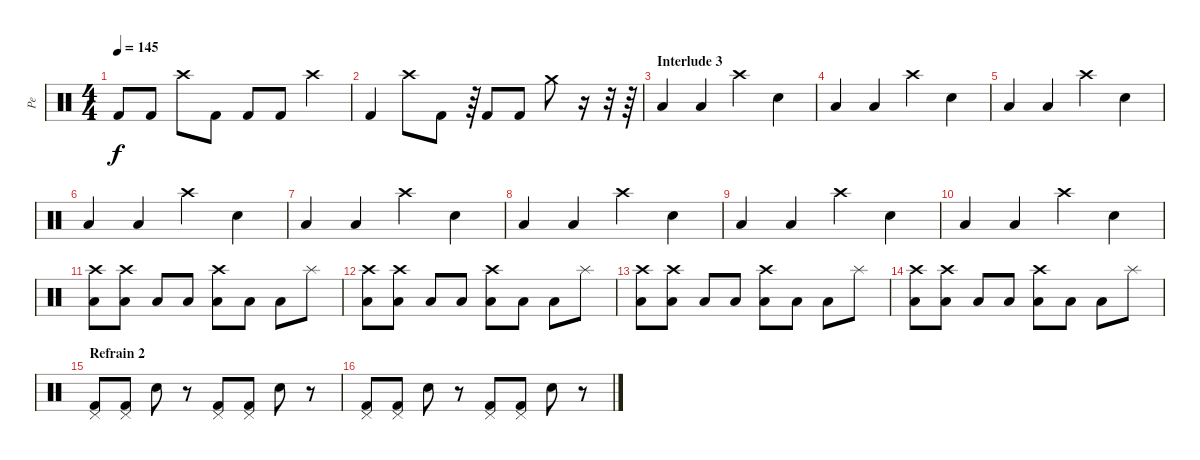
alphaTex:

\track ("Pe" "Pe") {instrument percussion}
\staff {score}
\articulation defaults
\ts (4 4)
\tempo 145
\clef neutral
\ks c "Kick (hit) 2".8{dy f} "Kick (hit) 2".8 "Crash high (hit)".8 "Kick (hit) 2".8 "Kick (hit) 2".8 "Kick (hit) 2".8 "Crash high (hit)".4
|
"Kick (hit) 2".4 "Crash high (hit)".8 "Kick (hit) 2".8 r.64 "Kick (hit) 2".8 "Kick (hit) 2".8 "Crash medium (hit)".8 r.16 r.32 r.64 |
\section ("" "Interlude 3")
"Low Tom (hit)".4 "Low Floor Tom (hit)".4 "Crash high (hit)".4 "Electric Snare (hit)".4 |
"Low Tom (hit)".4 "Low Floor Tom (hit)".4 "Crash high (hit)".4 "Electric Snare (hit)".4 |
"Low Tom (hit)".4 "Low Floor Tom (hit)".4 "Crash high (hit)".4 "Electric Snare (hit)".4 |
"Low Tom (hit)".4 "Low Floor Tom (hit)".4 "Crash high (hit)".4 "Electric Snare (hit)".4 |
"Low Tom (hit)".4 "Low Floor Tom (hit)".4 "Crash high (hit)".4 "Electric Snare (hit)".4 |
"Low Tom (hit)".4 "Low Floor Tom (hit)".4 "Crash high (hit)".4 "Electric Snare (hit)".4 |
"Low Tom (hit)".4 "Low Floor Tom (hit)".4 "Crash high (hit)".4 "Electric Snare (hit)".4 |
"Low Tom (hit)".4 "Low Floor Tom (hit)".4 "Crash high (hit)".4 "Electric Snare (hit)".4 |
("Crash high (hit)" "Low Floor Tom (hit)").8 ("Crash high (hit)" "Low Floor Tom (hit)").8 "Low Floor Tom (hit)".8 "Low Floor Tom (hit)".8 ("Crash high (hit)" "Low Floor Tom (hit)").8 "Low Floor Tom (hit)".8 "Low Floor Tom (hit)".8 "Splash (hit)".8 |
("Crash high (hit)" "Low Floor Tom (hit)").8 ("Crash high (hit)" "Low Floor Tom (hit)").8 "Low Floor Tom (hit)".8 "Low Floor Tom (hit)".8 ("Crash high (hit)" "Low Floor Tom (hit)").8 "Low Floor Tom (hit)".8 "Low Floor Tom (hit)".8 "Splash (hit)".8 |
("Crash high (hit)" "Low Floor Tom (hit)").8 ("Crash high (hit)" "Low Floor Tom (hit)").8 "Low Floor Tom (hit)".8 "Low Floor Tom (hit)".8 ("Crash high (hit)" "Low Floor Tom (hit)").8 "Low Floor Tom (hit)".8 "Low Floor Tom (hit)".8 "Splash (hit)".8 |
("Crash high (hit)" "Low Floor Tom (hit)").8 ("Crash high (hit)" "Low Floor Tom (hit)").8 "Low Floor Tom (hit)".8 "Low Floor Tom (hit)".8 ("Crash high (hit)" "Low Floor Tom (hit)").8 "Low Floor Tom (hit)".8 "Low Floor Tom (hit)".8 "Splash (hit)".8 |
\section ("" "Refrain 2")
("Pedal Hi-Hat (hit)" "Kick (hit) 2").8 ("Pedal Hi-Hat (hit)" "Kick (hit) 2").8 "Electric Snare (hit)".8 r.8 ("Pedal Hi-Hat (hit)" "Kick (hit) 2").8 ("Pedal Hi-Hat (hit)" "Kick (hit) 2").8 "Electric Snare (hit)".8 r.8 |
("Pedal Hi-Hat (hit)" "Kick (hit) 2").8 ("Pedal Hi-Hat (hit)" "Kick (hit) 2").8 "Electric Snare (hit)".8 r.8 ("Pedal Hi-Hat (hit)" "Kick (hit) 2").8 ("Pedal Hi-Hat (hit)" "Kick (hit) 2").8 "Electric Snare (hit)".8 r.8
